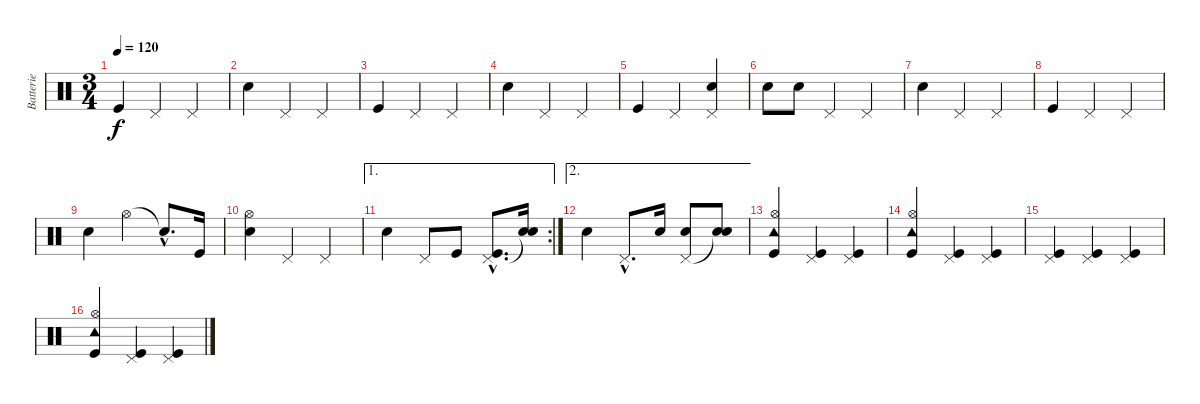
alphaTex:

\track ("Batterie" "Batterie") {instrument percussion}
\staff {score}
\articulation defaults
\ts (3 4)
\tempo 120
\clef neutral
\ks c "Kick (hit)".4{dy f} "Pedal Hi-Hat (hit)".4 "Pedal Hi-Hat (hit)".4
|
"Snare (hit) 2".4 "Pedal Hi-Hat (hit)".4 "Pedal Hi-Hat (hit)".4 |
"Kick (hit)".4 "Pedal Hi-Hat (hit)".4 "Pedal Hi-Hat (hit)".4 |
"Snare (hit) 2".4 "Pedal Hi-Hat (hit)".4 "Pedal Hi-Hat (hit)".4 |
"Kick (hit)".4 "Pedal Hi-Hat (hit)".4 ("Pedal Hi-Hat (hit)" "Snare (hit) 2").4 |
"Snare (hit) 2".8 "Snare (hit) 2".8 "Pedal Hi-Hat (hit)".4 "Pedal Hi-Hat (hit)".4 |
"Snare (hit) 2".4 "Pedal Hi-Hat (hit)".4 "Pedal Hi-Hat (hit)".4 |
"Kick (hit)".4 "Pedal Hi-Hat (hit)".4 "Pedal Hi-Hat (hit)".4 |
"Snare (hit) 2".4 "Hi-Hat (open)".4 "Snare (hit)"{hac t}.8{d} "Kick (hit)".16 |
("Hi-Hat (open)" "Snare (hit) 2").4 "Pedal Hi-Hat (hit)".4 "Pedal Hi-Hat (hit)".4 |
\ae 1
\rc 2 "Snare (hit) 2".4 "Pedal Hi-Hat (hit)".8 "Kick (hit)".8
("Pedal Hi-Hat (hit)"{hac} "Kick (hit)"{hac}).8{d} ("Snare (hit)"{t} "Snare (hit) 2").16 |
\ae 2 "Snare (hit) 2".4 "Pedal Hi-Hat (hit)"{hac}.8{d} "Snare (hit) 2".16
("Pedal Hi-Hat (hit)" "Snare (hit) 2").8 ("Snare (hit)"{t} "Snare (hit) 2").8 |
("Hi-Hat (open)" "Tambourine (hit)" "Kick (hit)").4 ("Pedal Hi-Hat (hit)" "Kick (hit)").4 ("Pedal Hi-Hat (hit)" "Kick (hit)").4 |
("Hi-Hat (open)" "Tambourine (hit)" "Kick (hit)").4 ("Pedal Hi-Hat (hit)" "Kick (hit)").4 ("Pedal Hi-Hat (hit)" "Kick (hit)").4 |
("Pedal Hi-Hat (hit)" "Kick (hit)").4 ("Pedal Hi-Hat (hit)" "Kick (hit)").4 ("Pedal Hi-Hat (hit)" "Kick (hit)").4 |
("Hi-Hat (open)" "Tambourine (hit)" "Kick (hit)").4 ("Pedal Hi-Hat (hit)" "Kick (hit)").4 ("Pedal Hi-Hat (hit)" "Kick (hit)").4
